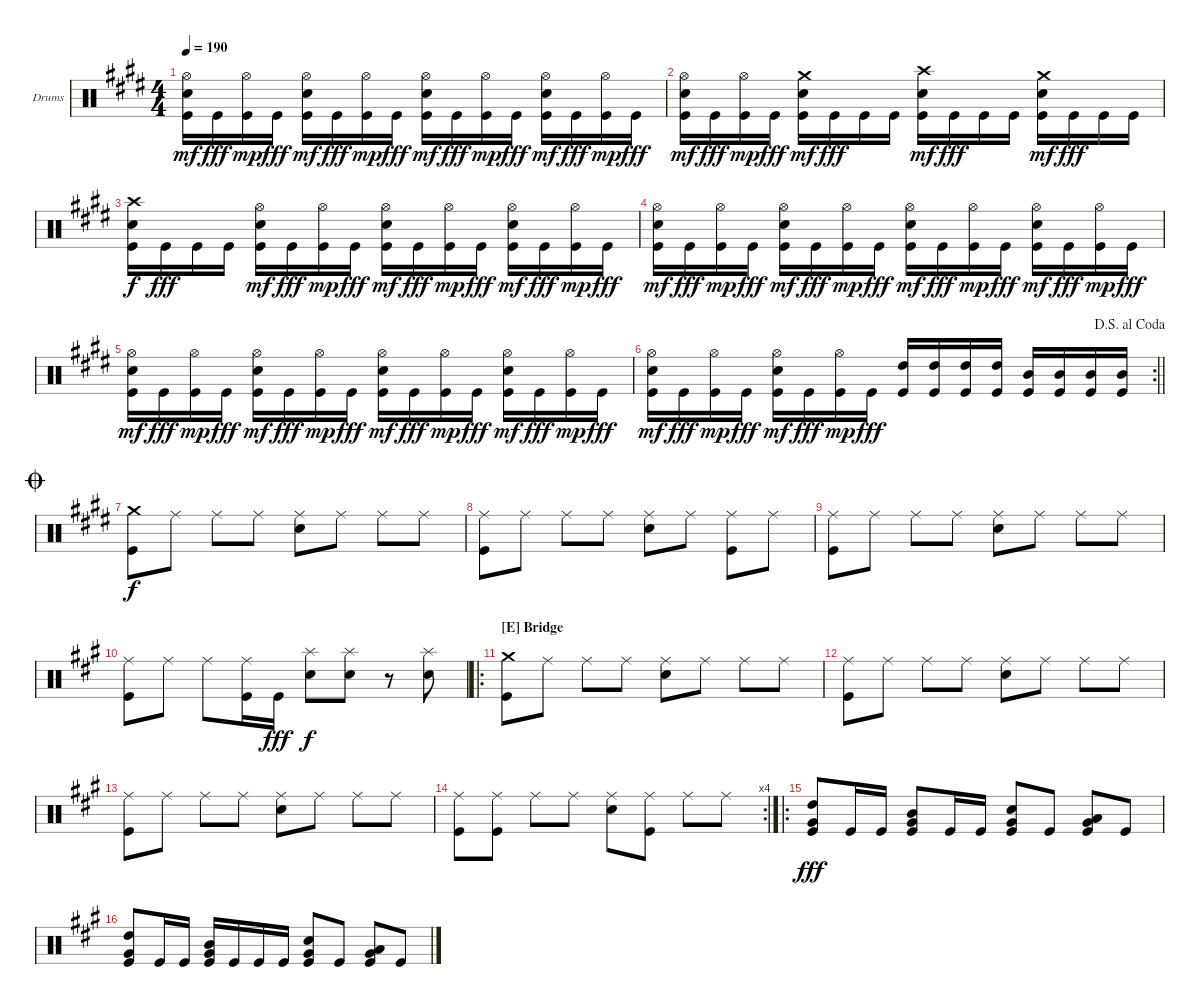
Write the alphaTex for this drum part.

\bracketExtendMode groupsimilarinstruments
\firstSystemTrackNameOrientation horizontal
\otherSystemsTrackNameOrientation horizontal
\track ("Drumkit" "Drums") {instrument percussion}
\staff {score}
\articulation defaults
\ts (4 4)
\tempo 190
\clef neutral
\ks c#minor
("Hi-Hat (open)" "Snare (hit) 2" "Kick (hit)").16{dy mf} "Kick (hit)".16{dy fff} ("Hi-Hat (open)" "Kick (hit)").16{dy mp} "Kick (hit)".16{dy fff} ("Hi-Hat (open)" "Snare (hit) 2" "Kick (hit)").16{dy mf} "Kick (hit)".16{dy fff} ("Hi-Hat (open)" "Kick (hit)").16{dy mp} "Kick (hit)".16{dy fff} ("Hi-Hat (open)" "Snare (hit) 2" "Kick (hit)").16{dy mf} "Kick (hit)".16{dy fff} ("Hi-Hat (open)" "Kick (hit)").16{dy mp} "Kick (hit)".16{dy fff} ("Hi-Hat (open)" "Snare (hit) 2" "Kick (hit)").16{dy mf} "Kick (hit)".16{dy fff} ("Hi-Hat (open)" "Kick (hit)").16{dy mp} "Kick (hit)".16{dy fff} |
("Hi-Hat (open)" "Snare (hit) 2" "Kick (hit)").16{dy mf} "Kick (hit)".16{dy fff} ("Hi-Hat (open)" "Kick (hit)").16{dy mp} "Kick (hit)".16{dy fff} ("Crash medium (hit)" "Snare (hit) 2" "Kick (hit)").16{dy mf} "Kick (hit)".16{dy fff} "Kick (hit)".16 "Kick (hit)".16 ("Crash high (hit)" "Snare (hit) 2" "Kick (hit)").16{dy mf} "Kick (hit)".16{dy fff} "Kick (hit)".16 "Kick (hit)".16 ("Crash medium (hit)" "Snare (hit) 2" "Kick (hit)").16{dy mf} "Kick (hit)".16{dy fff} "Kick (hit)".16 "Kick (hit)".16 |
("Crash high (hit)" "Snare (hit) 2" "Kick (hit)").16{dy f} "Kick (hit)".16{dy fff} "Kick (hit)".16 "Kick (hit)".16 ("Hi-Hat (open)" "Snare (hit) 2" "Kick (hit)").16{dy mf} "Kick (hit)".16{dy fff} ("Hi-Hat (open)" "Kick (hit)").16{dy mp} "Kick (hit)".16{dy fff} ("Hi-Hat (open)" "Snare (hit) 2" "Kick (hit)").16{dy mf} "Kick (hit)".16{dy fff} ("Hi-Hat (open)" "Kick (hit)").16{dy mp} "Kick (hit)".16{dy fff} ("Hi-Hat (open)" "Snare (hit) 2" "Kick (hit)").16{dy mf} "Kick (hit)".16{dy fff} ("Hi-Hat (open)" "Kick (hit)").16{dy mp} "Kick (hit)".16{dy fff} |
("Hi-Hat (open)" "Snare (hit) 2" "Kick (hit)").16{dy mf} "Kick (hit)".16{dy fff} ("Hi-Hat (open)" "Kick (hit)").16{dy mp} "Kick (hit)".16{dy fff} ("Hi-Hat (open)" "Snare (hit) 2" "Kick (hit)").16{dy mf} "Kick (hit)".16{dy fff} ("Hi-Hat (open)" "Kick (hit)").16{dy mp} "Kick (hit)".16{dy fff} ("Hi-Hat (open)" "Snare (hit) 2" "Kick (hit)").16{dy mf} "Kick (hit)".16{dy fff} ("Hi-Hat (open)" "Kick (hit)").16{dy mp} "Kick (hit)".16{dy fff} ("Hi-Hat (open)" "Snare (hit) 2" "Kick (hit)").16{dy mf} "Kick (hit)".16{dy fff} ("Hi-Hat (open)" "Kick (hit)").16{dy mp} "Kick (hit)".16{dy fff} |
("Hi-Hat (open)" "Snare (hit) 2" "Kick (hit)").16{dy mf} "Kick (hit)".16{dy fff} ("Hi-Hat (open)" "Kick (hit)").16{dy mp} "Kick (hit)".16{dy fff} ("Hi-Hat (open)" "Snare (hit) 2" "Kick (hit)").16{dy mf} "Kick (hit)".16{dy fff} ("Hi-Hat (open)" "Kick (hit)").16{dy mp} "Kick (hit)".16{dy fff} ("Hi-Hat (open)" "Snare (hit) 2" "Kick (hit)").16{dy mf} "Kick (hit)".16{dy fff} ("Hi-Hat (open)" "Kick (hit)").16{dy mp} "Kick (hit)".16{dy fff} ("Hi-Hat (open)" "Snare (hit) 2" "Kick (hit)").16{dy mf} "Kick (hit)".16{dy fff} ("Hi-Hat (open)" "Kick (hit)").16{dy mp} "Kick (hit)".16{dy fff} |
\rc 2
\jump dalsegnoalcoda
\barLineRight lightlight
("Hi-Hat (open)" "Snare (hit) 2" "Kick (hit)").16{dy mf} "Kick (hit)".16{dy fff} ("Hi-Hat (open)" "Kick (hit)").16{dy mp} "Kick (hit)".16{dy fff} ("Hi-Hat (open)" "Snare (hit) 2" "Kick (hit)").16{dy mf} "Kick (hit)".16{dy fff} ("Hi-Hat (open)" "Kick (hit)").16{dy mp} "Kick (hit)".16{dy fff} ("High Tom (hit)" "Kick (hit)").16 ("High Tom (hit)" "Kick (hit)").16 ("High Tom (hit)" "Kick (hit)").16 ("High Tom (hit)" "Kick (hit)").16 ("Mid Tom (hit)" "Kick (hit)").16 ("Mid Tom (hit)" "Kick (hit)").16 ("Mid Tom (hit)" "Kick (hit)").16 ("Mid Tom (hit)" "Kick (hit)").16 |
\jump coda
("Crash medium (hit)" "Kick (hit)").8{dy f} "Ride (middle)".8 "Ride (middle)".8 "Ride (middle)".8 ("Ride (middle)" "Snare (hit) 2").8 "Ride (middle)".8 "Ride (middle)".8 "Ride (middle)".8 |
("Ride (middle)" "Kick (hit)").8 "Ride (middle)".8 "Ride (middle)".8 "Ride (middle)".8 ("Ride (middle)" "Snare (hit) 2").8 "Ride (middle)".8 ("Ride (middle)" "Kick (hit)").8 "Ride (middle)".8 |
("Ride (middle)" "Kick (hit)").8 "Ride (middle)".8 "Ride (middle)".8 "Ride (middle)".8 ("Ride (middle)" "Snare (hit) 2").8 "Ride (middle)".8 "Ride (middle)".8 "Ride (middle)".8 |
\ks f#minor
("Ride (middle)" "Kick (hit)").8 "Ride (middle)".8 "Ride (middle)".8 ("Ride (middle)" "Kick (hit)").16 "Kick (hit)".16{dy fff} ("Splash (hit)" "Snare (hit) 2").8{dy f} ("Splash (hit)" "Snare (hit) 2").8 r.8 ("Splash (hit)" "Snare (hit) 2").8 |
\ro
\section ("E" "Bridge")
("Crash medium (hit)" "Kick (hit)").8 "Ride (middle)".8 "Ride (middle)".8 "Ride (middle)".8 ("Ride (middle)" "Snare (hit) 2").8 "Ride (middle)".8 "Ride (middle)".8 "Ride (middle)".8 |
("Ride (middle)" "Kick (hit)").8 "Ride (middle)".8 "Ride (middle)".8 "Ride (middle)".8 ("Ride (middle)" "Snare (hit) 2").8 "Ride (middle)".8 "Ride (middle)".8 "Ride (middle)".8 |
("Ride (middle)" "Kick (hit)").8 "Ride (middle)".8 "Ride (middle)".8 "Ride (middle)".8 ("Ride (middle)" "Snare (hit) 2").8 "Ride (middle)".8 "Ride (middle)".8 "Ride (middle)".8 |
\rc 4
("Ride (middle)" "Kick (hit)").8 ("Ride (middle)" "Kick (hit)").8 "Ride (middle)".8 "Ride (middle)".8 ("Ride (middle)" "Snare (hit) 2").8 ("Ride (middle)" "Kick (hit)").8 "Ride (middle)".8 "Ride (middle)".8 |
\ro
("Very Low Tom (hit)" "High Tom (hit)" "Kick (hit)").8{dy fff} "Kick (hit)".16 "Kick (hit)".16 ("Very Low Tom (hit)" "Mid Tom (hit)" "Kick (hit)").8 "Kick (hit)".16 "Kick (hit)".16 ("Very Low Tom (hit)" "Snare (hit) 2" "Kick (hit)").8 "Kick (hit)".8 ("Very Low Tom (hit)" "Low Tom (hit)" "Kick (hit)").8 "Kick (hit)".8 |
("Very Low Tom (hit)" "High Tom (hit)" "Kick (hit)").8 "Kick (hit)".16 "Kick (hit)".16 ("Very Low Tom (hit)" "Mid Tom (hit)" "Kick (hit)").16 "Kick (hit)".16 "Kick (hit)".16 "Kick (hit)".16 ("Very Low Tom (hit)" "Snare (hit) 2" "Kick (hit)").8 "Kick (hit)".8 ("Very Low Tom (hit)" "Low Tom (hit)" "Kick (hit)").8 "Kick (hit)".8
